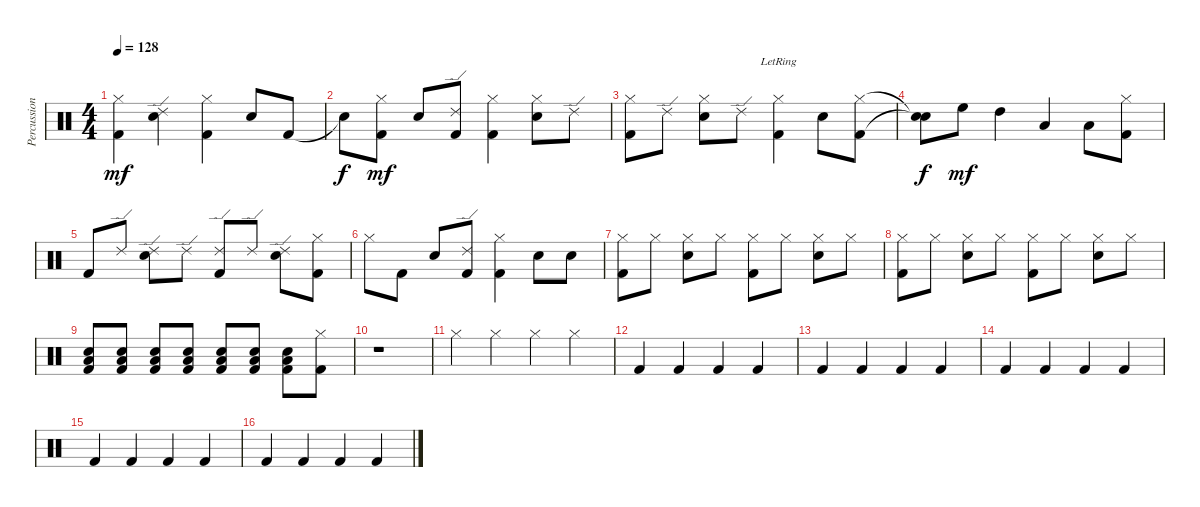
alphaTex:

\track ("Percussions" "Percussion") {instrument percussion}
\staff {score}
\articulation defaults
\ts (4 4)
\tempo 128
\clef neutral
\ks c
("Kick (hit) 2" "Hi-Hat (closed)").4{dy mf} ("Ride (edge) 2" "Snare (hit) 2").4 ("Kick (hit) 2" "Hi-Hat (closed)").4 "Snare (hit) 2".8 "Kick (hit) 2".8 |
"Snare (hit)"{t}.8{dy f} ("Kick (hit) 2" "Hi-Hat (closed)").8{dy mf} "Snare (hit) 2".8 ("Kick (hit) 2" "Ride (edge) 2").8 ("Kick (hit) 2" "Hi-Hat (closed)").4 ("Hi-Hat (closed)" "Snare (hit) 2").8 "Ride (edge) 2".8 |
("Kick (hit) 2" "Hi-Hat (closed)").8 "Ride (edge) 2".8 ("Hi-Hat (closed)" "Snare (hit) 2").8 "Ride (edge) 2".8 ("Kick (hit) 2" "Hi-Hat (closed)"{lr}).4 "Snare (hit) 2".8 ("Kick (hit) 2" "Hi-Hat (closed)").8 |
("Snare (hit)"{t} "Snare (hit)"{t}).8{dy f} "High Floor Tom (hit)".8{dy mf} "High Tom (hit)".4 "Low Tom (hit)".4 "Low Floor Tom (hit)".8 ("Kick (hit) 2" "Hi-Hat (closed)").8 |
"Kick (hit) 2".8 "Ride (edge) 2".8 ("Ride (edge) 2" "Snare (hit) 2").8 "Ride (edge) 2".8 ("Kick (hit) 2" "Ride (edge) 2").8 "Ride (edge) 2".8 ("Ride (edge) 2" "Snare (hit) 2").8 ("Kick (hit) 2" "Hi-Hat (closed)").8 |
"Hi-Hat (closed)".8 "Kick (hit) 2".8 "Snare (hit) 2".8 ("Kick (hit) 2" "Ride (edge) 2").8 ("Kick (hit) 2" "Hi-Hat (closed)").4 "Snare (hit) 2".8 "Snare (hit) 2".8 |
("Kick (hit) 2" "Hi-Hat (closed)").8 "Hi-Hat (closed)".8 ("Hi-Hat (closed)" "Snare (hit) 2").8 "Hi-Hat (closed)".8 ("Kick (hit) 2" "Hi-Hat (closed)").8 "Hi-Hat (closed)".8 ("Hi-Hat (closed)" "Snare (hit) 2").8 "Hi-Hat (closed)".8 |
("Kick (hit) 2" "Hi-Hat (closed)").8 "Hi-Hat (closed)".8 ("Hi-Hat (closed)" "Snare (hit) 2").8 "Hi-Hat (closed)".8 ("Kick (hit) 2" "Hi-Hat (closed)").8 "Hi-Hat (closed)".8 ("Hi-Hat (closed)" "Snare (hit) 2").8 "Hi-Hat (closed)".8 |
("Kick (hit) 2" "Snare (hit) 2" "Low Floor Tom (hit)").8 ("Kick (hit) 2" "Snare (hit) 2" "Low Floor Tom (hit)").8 ("Kick (hit) 2" "Snare (hit) 2" "Low Floor Tom (hit)").8 ("Kick (hit) 2" "Snare (hit) 2" "Low Floor Tom (hit)").8 ("Kick (hit) 2" "Snare (hit) 2" "Low Floor Tom (hit)").8 ("Kick (hit) 2" "Snare (hit) 2" "Low Floor Tom (hit)").8 ("Kick (hit) 2" "Snare (hit) 2" "Low Floor Tom (hit)").8 ("Kick (hit) 2" "Hi-Hat (closed)").8 |
r.1 |
"Hi-Hat (closed)".4 "Hi-Hat (closed)".4 "Hi-Hat (closed)".4 "Hi-Hat (closed)".4 |
"Kick (hit) 2".4 "Kick (hit) 2".4 "Kick (hit) 2".4 "Kick (hit) 2".4 |
"Kick (hit) 2".4 "Kick (hit) 2".4 "Kick (hit) 2".4 "Kick (hit) 2".4 |
"Kick (hit) 2".4 "Kick (hit) 2".4 "Kick (hit) 2".4 "Kick (hit) 2".4 |
"Kick (hit) 2".4 "Kick (hit) 2".4 "Kick (hit) 2".4 "Kick (hit) 2".4 |
"Kick (hit) 2".4 "Kick (hit) 2".4 "Kick (hit) 2".4 "Kick (hit) 2".4
